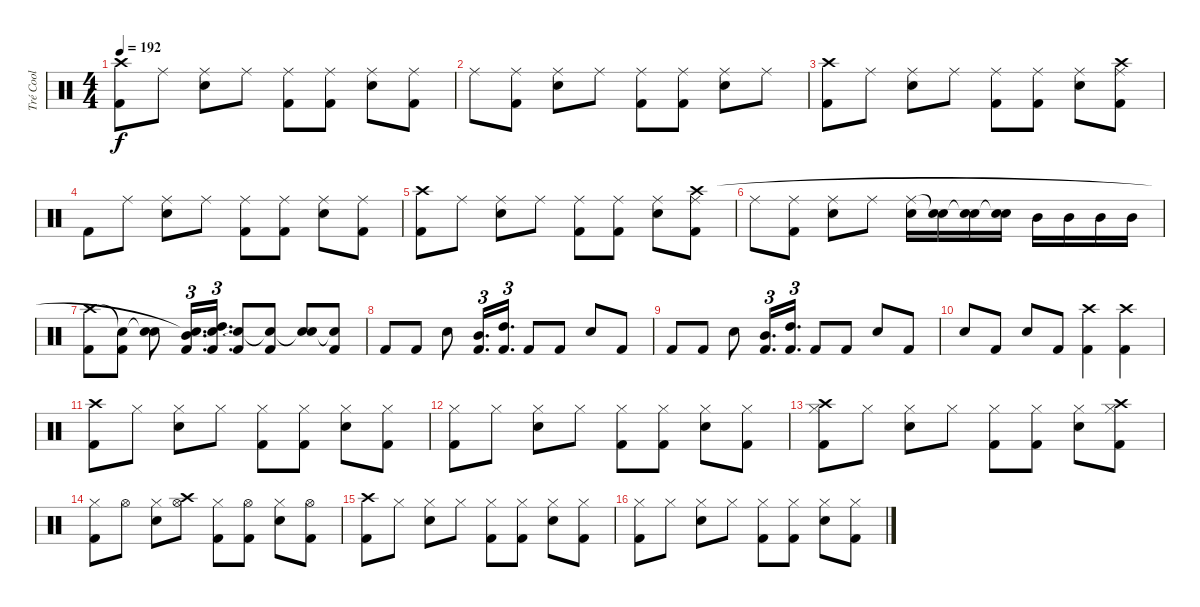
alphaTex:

\track ("Tré Cool" "Tré Cool") {solo instrument percussion}
\staff {score}
\articulation defaults
\ts (4 4)
\tempo 192
\clef neutral
\ks c
("Kick (hit) 2" "Crash high (hit)").8{dy f} "Ride (middle)".8 ("Ride (middle)" "Electric Snare (hit)").8 "Ride (middle)".8 ("Ride (middle)" "Kick (hit) 2").8 ("Ride (middle)" "Kick (hit) 2").8 ("Ride (middle)" "Electric Snare (hit)").8 ("Ride (middle)" "Kick (hit) 2").8 |
"Ride (middle)".8 ("Ride (middle)" "Kick (hit) 2").8 ("Ride (middle)" "Electric Snare (hit)").8 "Ride (middle)".8 ("Ride (middle)" "Kick (hit) 2").8 ("Ride (middle)" "Kick (hit) 2").8 ("Ride (middle)" "Electric Snare (hit)").8 "Ride (middle)".8 |
("Kick (hit) 2" "Crash high (hit)").8 "Ride (middle)".8 ("Ride (middle)" "Electric Snare (hit)").8 "Ride (middle)".8 ("Ride (middle)" "Kick (hit) 2").8 ("Ride (middle)" "Kick (hit) 2").8 ("Ride (middle)" "Electric Snare (hit)").8 ("Ride (middle)" "Kick (hit) 2" "Crash high (hit)").8 |
"Kick (hit) 2".8 "Ride (middle)".8 ("Ride (middle)" "Electric Snare (hit)").8 "Ride (middle)".8 ("Ride (middle)" "Kick (hit) 2").8 ("Ride (middle)" "Kick (hit) 2").8 ("Ride (middle)" "Electric Snare (hit)").8 ("Ride (middle)" "Kick (hit) 2").8 |
("Kick (hit) 2" "Crash high (hit)").8 "Ride (middle)".8 ("Ride (middle)" "Electric Snare (hit)").8 "Ride (middle)".8 ("Ride (middle)" "Kick (hit) 2").8 ("Ride (middle)" "Kick (hit) 2").8 ("Ride (middle)" "Electric Snare (hit)").8 ("Ride (middle)" "Kick (hit) 2" "Crash high (hit)").8 |
"Ride (middle)".8 ("Ride (middle)" "Kick (hit) 2").8 ("Ride (middle)" "Electric Snare (hit)").8 "Ride (middle)".8 ("Ride (middle)" "Electric Snare (hit)").16 ("Snare (hit)"{t} "Electric Snare (hit)").16 ("Snare (hit)"{t} "Electric Snare (hit)").16 ("Snare (hit)"{t} "Electric Snare (hit)").16 "Mid Tom (hit)".16 "Mid Tom (hit)".16 "Mid Tom (hit)".16 "Mid Tom (hit)".16 |
("Kick (hit) 2" "Crash high (hit)").8 ("Kick (hit) 2" "Snare (hit)"{t}).8 ("Electric Snare (hit)" "Snare (hit)"{t}).8 ("Kick (hit) 2" "Mid Tom (hit)" "Snare (hit)"{t}).16{d tu (3 2)} ("Kick (hit) 2" "High Tom (hit)" "Snare (hit)"{t}).16{d tu (3 2)} ("Kick (hit) 2" "Snare (hit)"{t}).8 ("Kick (hit) 2" "Snare (hit)"{t}).8 ("Electric Snare (hit)" "Snare (hit)"{t}).8 ("Kick (hit) 2" "Snare (hit)"{t}).8 |
"Kick (hit) 2".8 "Kick (hit) 2".8 "Electric Snare (hit)".8 ("Kick (hit) 2" "Mid Tom (hit)").16{d tu (3 2)} ("Kick (hit) 2" "High Tom (hit)").16{d tu (3 2)} "Kick (hit) 2".8 "Kick (hit) 2".8 "Electric Snare (hit)".8 "Kick (hit) 2".8 |
"Kick (hit) 2".8 "Kick (hit) 2".8 "Electric Snare (hit)".8 ("Kick (hit) 2" "Mid Tom (hit)").16{d tu (3 2)} ("Kick (hit) 2" "High Tom (hit)").16{d tu (3 2)} "Kick (hit) 2".8 "Kick (hit) 2".8 "Electric Snare (hit)".8 "Kick (hit) 2".8 |
"Electric Snare (hit)".8 "Kick (hit) 2".8 "Electric Snare (hit)".8 "Kick (hit) 2".8 ("Kick (hit) 2" "Crash high (hit)").4 ("Kick (hit) 2" "Crash high (hit)").4 |
("Kick (hit) 2" "Crash high (hit)").8 "Hi-Hat (closed)".8 ("Hi-Hat (closed)" "Electric Snare (hit)").8 "Hi-Hat (closed)".8 ("Hi-Hat (closed)" "Kick (hit) 2").8 ("Hi-Hat (closed)" "Kick (hit) 2").8 ("Hi-Hat (closed)" "Electric Snare (hit)").8 ("Hi-Hat (closed)" "Kick (hit) 2").8 |
("Hi-Hat (closed)" "Kick (hit) 2").8 "Hi-Hat (closed)".8 ("Hi-Hat (closed)" "Electric Snare (hit)").8 "Hi-Hat (closed)".8 ("Hi-Hat (closed)" "Kick (hit) 2").8 ("Hi-Hat (closed)" "Kick (hit) 2").8 ("Hi-Hat (closed)" "Electric Snare (hit)").8 ("Hi-Hat (closed)" "Kick (hit) 2").8 |
("Hi-Hat (closed)" "Kick (hit) 2" "Crash high (hit)").8 "Hi-Hat (closed)".8 ("Hi-Hat (closed)" "Electric Snare (hit)").8 "Hi-Hat (closed)".8 ("Hi-Hat (closed)" "Kick (hit) 2").8 ("Hi-Hat (closed)" "Kick (hit) 2").8 ("Hi-Hat (closed)" "Electric Snare (hit)").8 ("Hi-Hat (closed)" "Kick (hit) 2" "Crash high (hit)").8 |
("Hi-Hat (closed)" "Kick (hit) 2").8 "Hi-Hat (open)".8 ("Hi-Hat (closed)" "Electric Snare (hit)").8 ("Hi-Hat (open)" "Crash high (hit)").8 ("Hi-Hat (closed)" "Kick (hit) 2").8 ("Hi-Hat (open)" "Kick (hit) 2").8 ("Hi-Hat (closed)" "Electric Snare (hit)").8 ("Hi-Hat (open)" "Kick (hit) 2").8 |
("Kick (hit) 2" "Crash high (hit)").8 "Hi-Hat (closed)".8 ("Hi-Hat (closed)" "Electric Snare (hit)").8 "Hi-Hat (closed)".8 ("Hi-Hat (closed)" "Kick (hit) 2").8 ("Hi-Hat (closed)" "Kick (hit) 2").8 ("Hi-Hat (closed)" "Electric Snare (hit)").8 ("Hi-Hat (closed)" "Kick (hit) 2").8 |
("Hi-Hat (closed)" "Kick (hit) 2").8 "Hi-Hat (closed)".8 ("Hi-Hat (closed)" "Electric Snare (hit)").8 "Hi-Hat (closed)".8 ("Hi-Hat (closed)" "Kick (hit) 2").8 ("Hi-Hat (closed)" "Kick (hit) 2").8 ("Hi-Hat (closed)" "Electric Snare (hit)").8 ("Hi-Hat (closed)" "Kick (hit) 2").8
